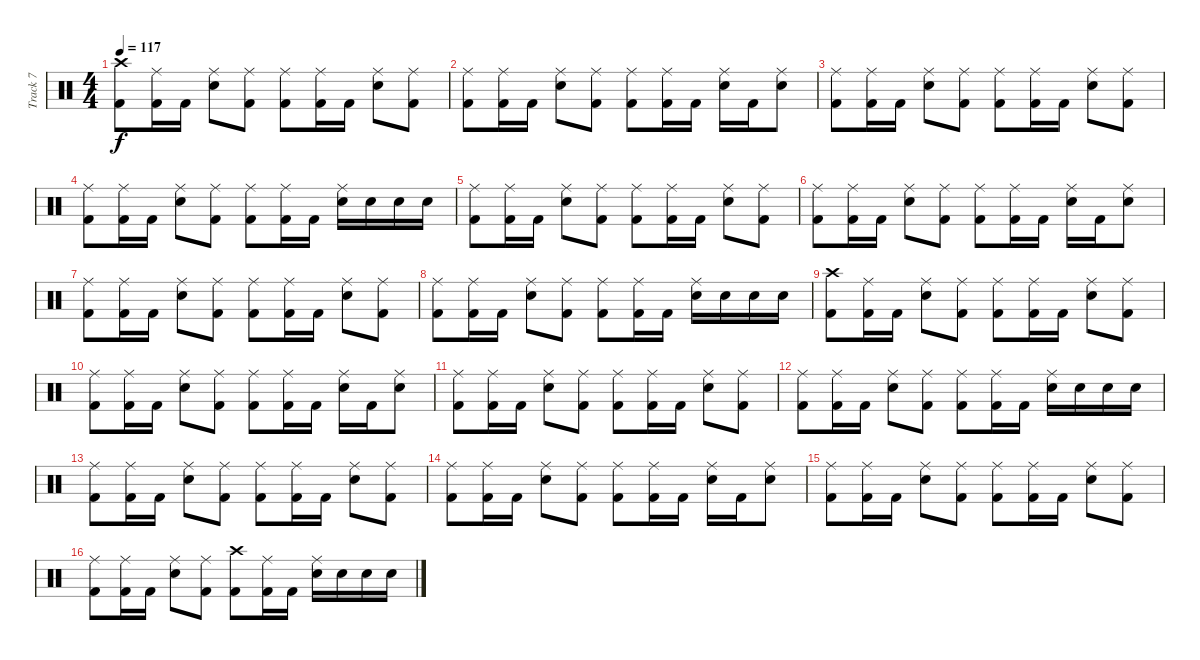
\track ("Track 7" "Track 7") {instrument percussion}
\staff {score}
\articulation defaults
\ts (4 4)
\tempo 117
\clef neutral
\ks c
("Crash high (hit)" "Kick (hit) 2").8{dy f} ("Ride (middle)" "Kick (hit) 2").16 "Kick (hit) 2".16 ("Ride (middle)" "Snare (hit) 2").8 ("Ride (middle)" "Kick (hit) 2").8 ("Ride (middle)" "Kick (hit) 2").8 ("Ride (middle)" "Kick (hit) 2").16 "Kick (hit) 2".16 ("Ride (middle)" "Snare (hit) 2").8 ("Ride (middle)" "Kick (hit) 2").8 |
("Ride (middle)" "Kick (hit) 2").8 ("Ride (middle)" "Kick (hit) 2").16 "Kick (hit) 2".16 ("Ride (middle)" "Snare (hit) 2").8 ("Ride (middle)" "Kick (hit) 2").8 ("Ride (middle)" "Kick (hit) 2").8 ("Ride (middle)" "Kick (hit) 2").16 "Kick (hit) 2".16 ("Ride (middle)" "Snare (hit) 2").16 "Kick (hit) 2".16 ("Ride (middle)" "Snare (hit) 2").8 |
("Ride (middle)" "Kick (hit) 2").8 ("Ride (middle)" "Kick (hit) 2").16 "Kick (hit) 2".16 ("Ride (middle)" "Snare (hit) 2").8 ("Ride (middle)" "Kick (hit) 2").8 ("Ride (middle)" "Kick (hit) 2").8 ("Ride (middle)" "Kick (hit) 2").16 "Kick (hit) 2".16 ("Ride (middle)" "Snare (hit) 2").8 ("Ride (middle)" "Kick (hit) 2").8 |
("Ride (middle)" "Kick (hit) 2").8 ("Ride (middle)" "Kick (hit) 2").16 "Kick (hit) 2".16 ("Ride (middle)" "Snare (hit) 2").8 ("Ride (middle)" "Kick (hit) 2").8 ("Ride (middle)" "Kick (hit) 2").8 ("Ride (middle)" "Kick (hit) 2").16 "Kick (hit) 2".16 ("Ride (middle)" "Snare (hit) 2").16 "Snare (hit) 2".16 "Snare (hit) 2".16 "Snare (hit) 2".16 |
("Ride (middle)" "Kick (hit) 2").8 ("Ride (middle)" "Kick (hit) 2").16 "Kick (hit) 2".16 ("Ride (middle)" "Snare (hit) 2").8 ("Ride (middle)" "Kick (hit) 2").8 ("Ride (middle)" "Kick (hit) 2").8 ("Ride (middle)" "Kick (hit) 2").16 "Kick (hit) 2".16 ("Ride (middle)" "Snare (hit) 2").8 ("Ride (middle)" "Kick (hit) 2").8 |
("Ride (middle)" "Kick (hit) 2").8 ("Ride (middle)" "Kick (hit) 2").16 "Kick (hit) 2".16 ("Ride (middle)" "Snare (hit) 2").8 ("Ride (middle)" "Kick (hit) 2").8 ("Ride (middle)" "Kick (hit) 2").8 ("Ride (middle)" "Kick (hit) 2").16 "Kick (hit) 2".16 ("Ride (middle)" "Snare (hit) 2").16 "Kick (hit) 2".16 ("Ride (middle)" "Snare (hit) 2").8 |
("Ride (middle)" "Kick (hit) 2").8 ("Ride (middle)" "Kick (hit) 2").16 "Kick (hit) 2".16 ("Ride (middle)" "Snare (hit) 2").8 ("Ride (middle)" "Kick (hit) 2").8 ("Ride (middle)" "Kick (hit) 2").8 ("Ride (middle)" "Kick (hit) 2").16 "Kick (hit) 2".16 ("Ride (middle)" "Snare (hit) 2").8 ("Ride (middle)" "Kick (hit) 2").8 |
("Ride (middle)" "Kick (hit) 2").8 ("Ride (middle)" "Kick (hit) 2").16 "Kick (hit) 2".16 ("Ride (middle)" "Snare (hit) 2").8 ("Ride (middle)" "Kick (hit) 2").8 ("Ride (middle)" "Kick (hit) 2").8 ("Ride (middle)" "Kick (hit) 2").16 "Kick (hit) 2".16 ("Ride (middle)" "Snare (hit) 2").16 "Snare (hit) 2".16 "Snare (hit) 2".16 "Snare (hit) 2".16 |
("Crash high (hit)" "Kick (hit) 2").8 ("Ride (middle)" "Kick (hit) 2").16 "Kick (hit) 2".16 ("Ride (middle)" "Snare (hit) 2").8 ("Ride (middle)" "Kick (hit) 2").8 ("Ride (middle)" "Kick (hit) 2").8 ("Ride (middle)" "Kick (hit) 2").16 "Kick (hit) 2".16 ("Ride (middle)" "Snare (hit) 2").8 ("Ride (middle)" "Kick (hit) 2").8 |
("Ride (middle)" "Kick (hit) 2").8 ("Ride (middle)" "Kick (hit) 2").16 "Kick (hit) 2".16 ("Ride (middle)" "Snare (hit) 2").8 ("Ride (middle)" "Kick (hit) 2").8 ("Ride (middle)" "Kick (hit) 2").8 ("Ride (middle)" "Kick (hit) 2").16 "Kick (hit) 2".16 ("Ride (middle)" "Snare (hit) 2").16 "Kick (hit) 2".16 ("Ride (middle)" "Snare (hit) 2").8 |
("Ride (middle)" "Kick (hit) 2").8 ("Ride (middle)" "Kick (hit) 2").16 "Kick (hit) 2".16 ("Ride (middle)" "Snare (hit) 2").8 ("Ride (middle)" "Kick (hit) 2").8 ("Ride (middle)" "Kick (hit) 2").8 ("Ride (middle)" "Kick (hit) 2").16 "Kick (hit) 2".16 ("Ride (middle)" "Snare (hit) 2").8 ("Ride (middle)" "Kick (hit) 2").8 |
("Ride (middle)" "Kick (hit) 2").8 ("Ride (middle)" "Kick (hit) 2").16 "Kick (hit) 2".16 ("Ride (middle)" "Snare (hit) 2").8 ("Ride (middle)" "Kick (hit) 2").8 ("Ride (middle)" "Kick (hit) 2").8 ("Ride (middle)" "Kick (hit) 2").16 "Kick (hit) 2".16 ("Ride (middle)" "Snare (hit) 2").16 "Snare (hit) 2".16 "Snare (hit) 2".16 "Snare (hit) 2".16 |
("Ride (middle)" "Kick (hit) 2").8 ("Ride (middle)" "Kick (hit) 2").16 "Kick (hit) 2".16 ("Ride (middle)" "Snare (hit) 2").8 ("Ride (middle)" "Kick (hit) 2").8 ("Ride (middle)" "Kick (hit) 2").8 ("Ride (middle)" "Kick (hit) 2").16 "Kick (hit) 2".16 ("Ride (middle)" "Snare (hit) 2").8 ("Ride (middle)" "Kick (hit) 2").8 |
("Ride (middle)" "Kick (hit) 2").8 ("Ride (middle)" "Kick (hit) 2").16 "Kick (hit) 2".16 ("Ride (middle)" "Snare (hit) 2").8 ("Ride (middle)" "Kick (hit) 2").8 ("Ride (middle)" "Kick (hit) 2").8 ("Ride (middle)" "Kick (hit) 2").16 "Kick (hit) 2".16 ("Ride (middle)" "Snare (hit) 2").16 "Kick (hit) 2".16 ("Ride (middle)" "Snare (hit) 2").8 |
("Ride (middle)" "Kick (hit) 2").8 ("Ride (middle)" "Kick (hit) 2").16 "Kick (hit) 2".16 ("Ride (middle)" "Snare (hit) 2").8 ("Ride (middle)" "Kick (hit) 2").8 ("Ride (middle)" "Kick (hit) 2").8 ("Ride (middle)" "Kick (hit) 2").16 "Kick (hit) 2".16 ("Ride (middle)" "Snare (hit) 2").8 ("Ride (middle)" "Kick (hit) 2").8 |
("Ride (middle)" "Kick (hit) 2").8 ("Ride (middle)" "Kick (hit) 2").16 "Kick (hit) 2".16 ("Ride (middle)" "Snare (hit) 2").8 ("Ride (middle)" "Kick (hit) 2").8 ("Crash high (hit)" "Kick (hit) 2").8 ("Ride (middle)" "Kick (hit) 2").16 "Kick (hit) 2".16 ("Ride (middle)" "Snare (hit) 2").16 "Snare (hit) 2".16 "Snare (hit) 2".16 "Snare (hit) 2".16
